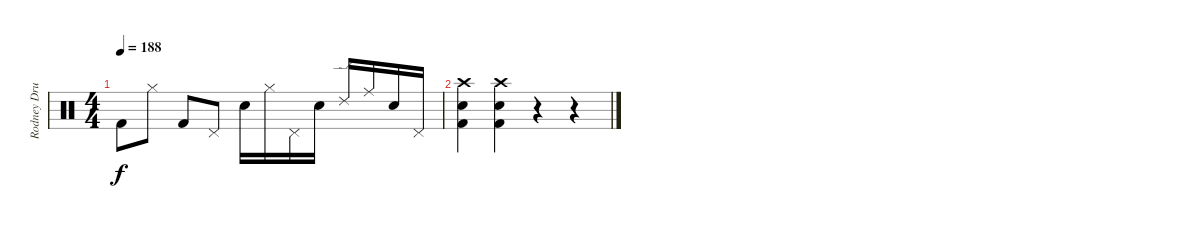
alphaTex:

\track ("Rodney Drums" "Rodney Dru") {instrument percussion}
\staff {score}
\articulation defaults
\ts (4 4)
\tempo 188
\clef neutral
\ks c "Kick (hit) 2".8{dy f} "Hi-Hat (closed)".8 "Kick (hit) 2".8 "Pedal Hi-Hat (hit)".8 "Electric Snare (hit)".16 "Hi-Hat (closed)".16 "Pedal Hi-Hat (hit)".16 "Electric Snare (hit)".16 "Ride (edge) 2".16 "Ride (middle)".16 "Electric Snare (hit)".16 "Pedal Hi-Hat (hit)".16
|
("Crash high (hit)" "Electric Snare (hit)" "Kick (hit) 2").4 ("Crash high (hit)" "Electric Snare (hit)" "Kick (hit) 2").4 r.4 r.4
